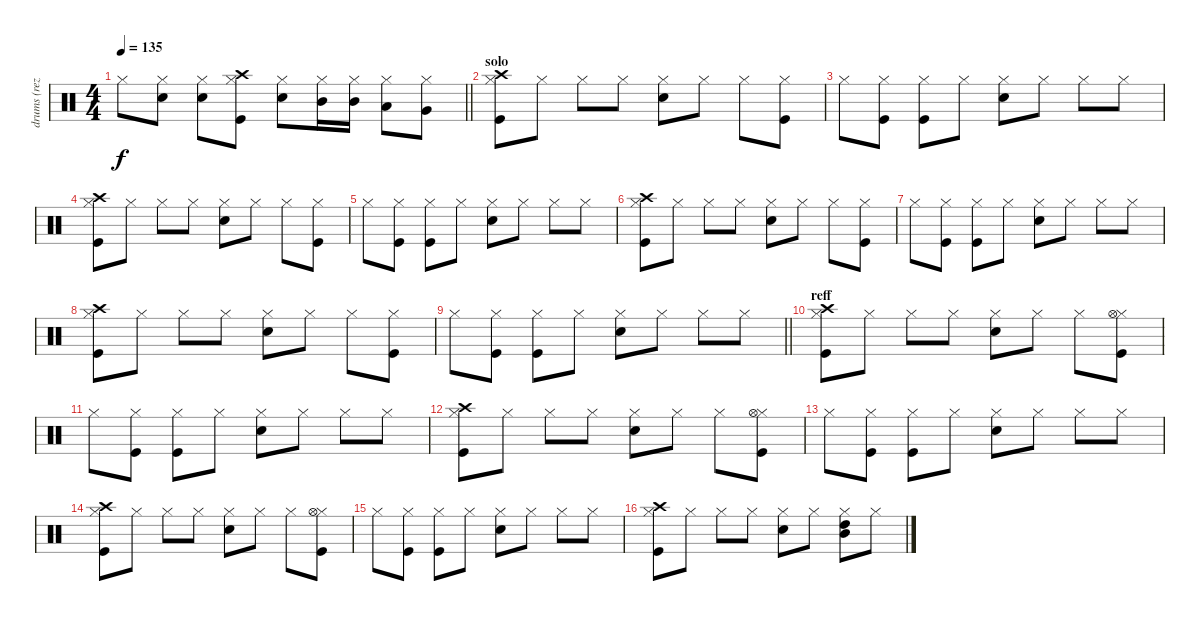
\track ("drums (reza)" "drums (rez") {instrument percussion}
\staff {score}
\articulation defaults
\ts (4 4)
\tempo 135
\clef neutral
\barLineRight lightlight
\ks c "Hi-Hat (closed)".8{dy f}
("Hi-Hat (closed)" "Snare (hit) 2").8 ("Hi-Hat (closed)" "Snare (hit) 2").8 ("Hi-Hat (closed)" "Kick (hit)" "Crash high (hit)").8 ("Hi-Hat (closed)" "Snare (hit) 2").8 ("Hi-Hat (closed)" "Mid Tom (hit)").16 ("Hi-Hat (closed)" "Mid Tom (hit)").16 ("Hi-Hat (closed)" "Low Tom (hit)").8 ("Hi-Hat (closed)" "Very Low Tom (hit)").8 |
\section ("" "solo")
("Hi-Hat (closed)" "Kick (hit)" "Crash high (hit)").8 "Hi-Hat (closed)".8 "Hi-Hat (closed)".8 "Hi-Hat (closed)".8 ("Hi-Hat (closed)" "Snare (hit) 2").8 "Hi-Hat (closed)".8 "Hi-Hat (closed)".8 ("Hi-Hat (closed)" "Kick (hit)").8 |
"Hi-Hat (closed)".8 ("Hi-Hat (closed)" "Kick (hit)").8 ("Hi-Hat (closed)" "Kick (hit)").8 "Hi-Hat (closed)".8 ("Hi-Hat (closed)" "Snare (hit) 2").8 "Hi-Hat (closed)".8 "Hi-Hat (closed)".8 "Hi-Hat (closed)".8 |
("Hi-Hat (closed)" "Kick (hit)" "Crash high (hit)").8 "Hi-Hat (closed)".8 "Hi-Hat (closed)".8 "Hi-Hat (closed)".8 ("Hi-Hat (closed)" "Snare (hit) 2").8 "Hi-Hat (closed)".8 "Hi-Hat (closed)".8 ("Hi-Hat (closed)" "Kick (hit)").8 |
"Hi-Hat (closed)".8 ("Hi-Hat (closed)" "Kick (hit)").8 ("Hi-Hat (closed)" "Kick (hit)").8 "Hi-Hat (closed)".8 ("Hi-Hat (closed)" "Snare (hit) 2").8 "Hi-Hat (closed)".8 "Hi-Hat (closed)".8 "Hi-Hat (closed)".8 |
("Hi-Hat (closed)" "Kick (hit)" "Crash high (hit)").8 "Hi-Hat (closed)".8 "Hi-Hat (closed)".8 "Hi-Hat (closed)".8 ("Hi-Hat (closed)" "Snare (hit) 2").8 "Hi-Hat (closed)".8 "Hi-Hat (closed)".8 ("Hi-Hat (closed)" "Kick (hit)").8 |
"Hi-Hat (closed)".8 ("Hi-Hat (closed)" "Kick (hit)").8 ("Hi-Hat (closed)" "Kick (hit)").8 "Hi-Hat (closed)".8 ("Hi-Hat (closed)" "Snare (hit) 2").8 "Hi-Hat (closed)".8 "Hi-Hat (closed)".8 "Hi-Hat (closed)".8 |
("Hi-Hat (closed)" "Kick (hit)" "Crash high (hit)").8 "Hi-Hat (closed)".8 "Hi-Hat (closed)".8 "Hi-Hat (closed)".8 ("Hi-Hat (closed)" "Snare (hit) 2").8 "Hi-Hat (closed)".8 "Hi-Hat (closed)".8 ("Hi-Hat (closed)" "Kick (hit)").8 |
\barLineRight lightlight "Hi-Hat (closed)".8
("Hi-Hat (closed)" "Kick (hit)").8 ("Hi-Hat (closed)" "Kick (hit)").8 "Hi-Hat (closed)".8 ("Hi-Hat (closed)" "Snare (hit) 2").8 "Hi-Hat (closed)".8 "Hi-Hat (closed)".8 "Hi-Hat (closed)".8 |
\section ("" "reff")
("Hi-Hat (closed)" "Kick (hit)" "Crash high (hit)").8 "Hi-Hat (closed)".8 "Hi-Hat (closed)".8 "Hi-Hat (closed)".8 ("Hi-Hat (closed)" "Snare (hit) 2").8 "Hi-Hat (closed)".8 "Hi-Hat (closed)".8 ("Hi-Hat (closed)" "Kick (hit)" "Hi-Hat (open)").8 |
"Hi-Hat (closed)".8 ("Hi-Hat (closed)" "Kick (hit)").8 ("Hi-Hat (closed)" "Kick (hit)").8 "Hi-Hat (closed)".8 ("Hi-Hat (closed)" "Snare (hit) 2").8 "Hi-Hat (closed)".8 "Hi-Hat (closed)".8 "Hi-Hat (closed)".8 |
("Hi-Hat (closed)" "Kick (hit)" "Crash high (hit)").8 "Hi-Hat (closed)".8 "Hi-Hat (closed)".8 "Hi-Hat (closed)".8 ("Hi-Hat (closed)" "Snare (hit) 2").8 "Hi-Hat (closed)".8 "Hi-Hat (closed)".8 ("Hi-Hat (closed)" "Kick (hit)" "Hi-Hat (open)").8 |
"Hi-Hat (closed)".8 ("Hi-Hat (closed)" "Kick (hit)").8 ("Hi-Hat (closed)" "Kick (hit)").8 "Hi-Hat (closed)".8 ("Hi-Hat (closed)" "Snare (hit) 2").8 "Hi-Hat (closed)".8 "Hi-Hat (closed)".8 "Hi-Hat (closed)".8 |
("Hi-Hat (closed)" "Kick (hit)" "Crash high (hit)").8 "Hi-Hat (closed)".8 "Hi-Hat (closed)".8 "Hi-Hat (closed)".8 ("Hi-Hat (closed)" "Snare (hit) 2").8 "Hi-Hat (closed)".8 "Hi-Hat (closed)".8 ("Hi-Hat (closed)" "Kick (hit)" "Hi-Hat (open)").8 |
"Hi-Hat (closed)".8 ("Hi-Hat (closed)" "Kick (hit)").8 ("Hi-Hat (closed)" "Kick (hit)").8 "Hi-Hat (closed)".8 ("Hi-Hat (closed)" "Snare (hit) 2").8 "Hi-Hat (closed)".8 "Hi-Hat (closed)".8 "Hi-Hat (closed)".8 |
("Hi-Hat (closed)" "Kick (hit)" "Crash high (hit)").8 "Hi-Hat (closed)".8 "Hi-Hat (closed)".8 "Hi-Hat (closed)".8 ("Hi-Hat (closed)" "Snare (hit) 2").8 "Hi-Hat (closed)".8 ("Hi-Hat (closed)" "High Tom (hit)" "Mid Tom (hit)").8 "Hi-Hat (closed)".8
